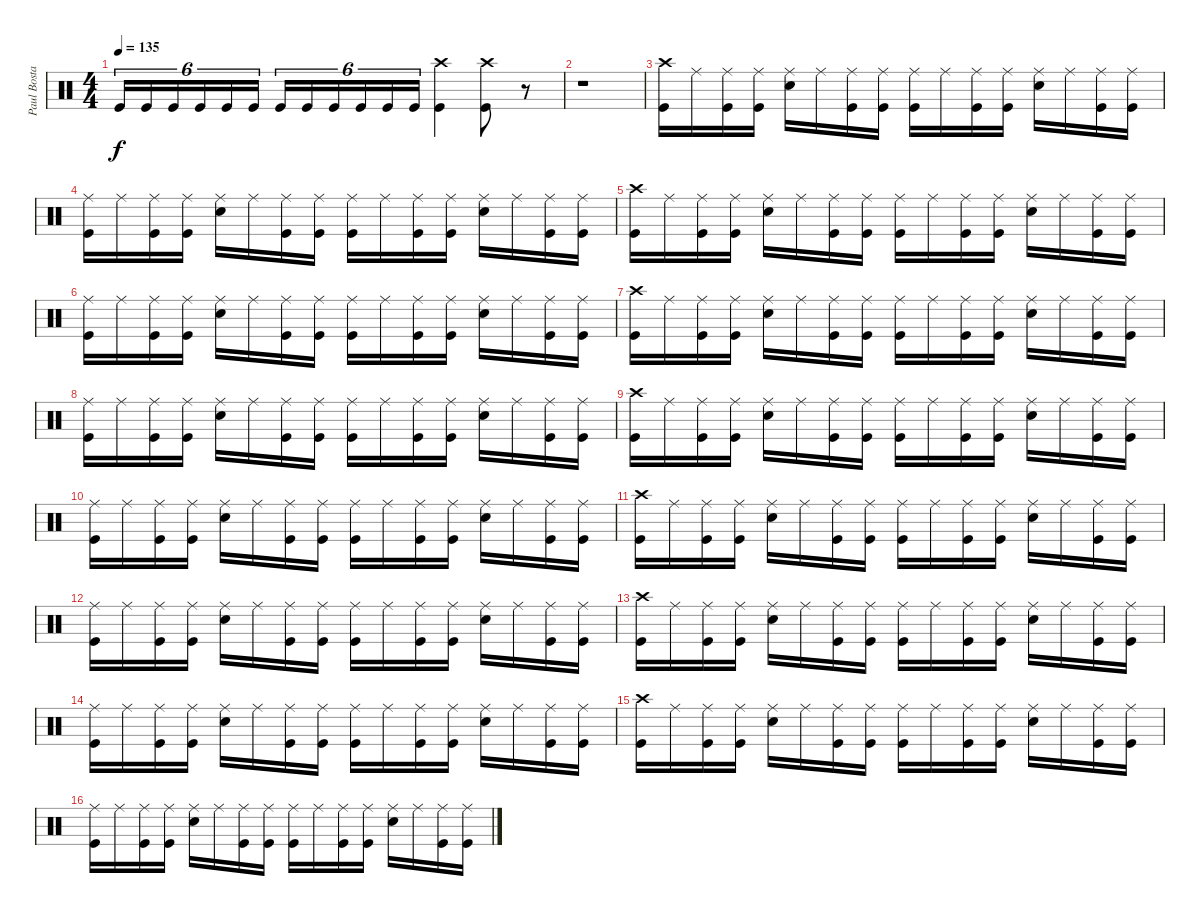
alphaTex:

\track ("Paul Bostaph" "Paul Bosta") {instrument percussion}
\staff {score}
\articulation defaults
\ts (4 4)
\tempo 135
\clef neutral
\ks c "Kick (hit)".16{tu (6 4) dy f} "Kick (hit)".16{tu (6 4)} "Kick (hit)".16{tu (6 4)} "Kick (hit)".16{tu (6 4)} "Kick (hit)".16{tu (6 4)} "Kick (hit)".16{tu (6 4)} "Kick (hit)".16{tu (6 4)} "Kick (hit)".16{tu (6 4)} "Kick (hit)".16{tu (6 4)} "Kick (hit)".16{tu (6 4)} "Kick (hit)".16{tu (6 4)} "Kick (hit)".16{tu (6 4)}
("Crash high (hit)" "Kick (hit)").4 ("Kick (hit)" "Crash high (hit)").8 r.8 |
r.1 |
("Kick (hit)" "Crash high (hit)").16 "Ride (middle)".16 ("Kick (hit)" "Ride (middle)").16 ("Kick (hit)" "Ride (middle)").16 ("Snare (hit) 2" "Ride (middle)").16 "Ride (middle)".16 ("Kick (hit)" "Ride (middle)").16 ("Kick (hit)" "Ride (middle)").16 ("Kick (hit)" "Ride (middle)").16 "Ride (middle)".16 ("Kick (hit)" "Ride (middle)").16 ("Kick (hit)" "Ride (middle)").16 ("Snare (hit) 2" "Ride (middle)").16 "Ride (middle)".16 ("Kick (hit)" "Ride (middle)").16 ("Kick (hit)" "Ride (middle)").16 |
("Kick (hit)" "Ride (middle)").16 "Ride (middle)".16 ("Kick (hit)" "Ride (middle)").16 ("Kick (hit)" "Ride (middle)").16 ("Snare (hit) 2" "Ride (middle)").16 "Ride (middle)".16 ("Kick (hit)" "Ride (middle)").16 ("Kick (hit)" "Ride (middle)").16 ("Kick (hit)" "Ride (middle)").16 "Ride (middle)".16 ("Kick (hit)" "Ride (middle)").16 ("Kick (hit)" "Ride (middle)").16 ("Snare (hit) 2" "Ride (middle)").16 "Ride (middle)".16 ("Kick (hit)" "Ride (middle)").16 ("Kick (hit)" "Ride (middle)").16 |
("Kick (hit)" "Crash high (hit)").16 "Ride (middle)".16 ("Kick (hit)" "Ride (middle)").16 ("Kick (hit)" "Ride (middle)").16 ("Snare (hit) 2" "Ride (middle)").16 "Ride (middle)".16 ("Kick (hit)" "Ride (middle)").16 ("Kick (hit)" "Ride (middle)").16 ("Kick (hit)" "Ride (middle)").16 "Ride (middle)".16 ("Kick (hit)" "Ride (middle)").16 ("Kick (hit)" "Ride (middle)").16 ("Snare (hit) 2" "Ride (middle)").16 "Ride (middle)".16 ("Kick (hit)" "Ride (middle)").16 ("Kick (hit)" "Ride (middle)").16 |
("Kick (hit)" "Ride (middle)").16 "Ride (middle)".16 ("Kick (hit)" "Ride (middle)").16 ("Kick (hit)" "Ride (middle)").16 ("Snare (hit) 2" "Ride (middle)").16 "Ride (middle)".16 ("Kick (hit)" "Ride (middle)").16 ("Kick (hit)" "Ride (middle)").16 ("Kick (hit)" "Ride (middle)").16 "Ride (middle)".16 ("Kick (hit)" "Ride (middle)").16 ("Kick (hit)" "Ride (middle)").16 ("Snare (hit) 2" "Ride (middle)").16 "Ride (middle)".16 ("Kick (hit)" "Ride (middle)").16 ("Kick (hit)" "Ride (middle)").16 |
("Kick (hit)" "Crash high (hit)").16 "Ride (middle)".16 ("Kick (hit)" "Ride (middle)").16 ("Kick (hit)" "Ride (middle)").16 ("Snare (hit) 2" "Ride (middle)").16 "Ride (middle)".16 ("Kick (hit)" "Ride (middle)").16 ("Kick (hit)" "Ride (middle)").16 ("Kick (hit)" "Ride (middle)").16 "Ride (middle)".16 ("Kick (hit)" "Ride (middle)").16 ("Kick (hit)" "Ride (middle)").16 ("Snare (hit) 2" "Ride (middle)").16 "Ride (middle)".16 ("Kick (hit)" "Ride (middle)").16 ("Kick (hit)" "Ride (middle)").16 |
("Kick (hit)" "Ride (middle)").16 "Ride (middle)".16 ("Kick (hit)" "Ride (middle)").16 ("Kick (hit)" "Ride (middle)").16 ("Snare (hit) 2" "Ride (middle)").16 "Ride (middle)".16 ("Kick (hit)" "Ride (middle)").16 ("Kick (hit)" "Ride (middle)").16 ("Kick (hit)" "Ride (middle)").16 "Ride (middle)".16 ("Kick (hit)" "Ride (middle)").16 ("Kick (hit)" "Ride (middle)").16 ("Snare (hit) 2" "Ride (middle)").16 "Ride (middle)".16 ("Kick (hit)" "Ride (middle)").16 ("Kick (hit)" "Ride (middle)").16 |
("Kick (hit)" "Crash high (hit)").16 "Ride (middle)".16 ("Kick (hit)" "Ride (middle)").16 ("Kick (hit)" "Ride (middle)").16 ("Snare (hit) 2" "Ride (middle)").16 "Ride (middle)".16 ("Kick (hit)" "Ride (middle)").16 ("Kick (hit)" "Ride (middle)").16 ("Kick (hit)" "Ride (middle)").16 "Ride (middle)".16 ("Kick (hit)" "Ride (middle)").16 ("Kick (hit)" "Ride (middle)").16 ("Snare (hit) 2" "Ride (middle)").16 "Ride (middle)".16 ("Kick (hit)" "Ride (middle)").16 ("Kick (hit)" "Ride (middle)").16 |
("Kick (hit)" "Ride (middle)").16 "Ride (middle)".16 ("Kick (hit)" "Ride (middle)").16 ("Kick (hit)" "Ride (middle)").16 ("Snare (hit) 2" "Ride (middle)").16 "Ride (middle)".16 ("Kick (hit)" "Ride (middle)").16 ("Kick (hit)" "Ride (middle)").16 ("Kick (hit)" "Ride (middle)").16 "Ride (middle)".16 ("Kick (hit)" "Ride (middle)").16 ("Kick (hit)" "Ride (middle)").16 ("Snare (hit) 2" "Ride (middle)").16 "Ride (middle)".16 ("Kick (hit)" "Ride (middle)").16 ("Kick (hit)" "Ride (middle)").16 |
("Kick (hit)" "Crash high (hit)").16 "Ride (middle)".16 ("Kick (hit)" "Ride (middle)").16 ("Kick (hit)" "Ride (middle)").16 ("Snare (hit) 2" "Ride (middle)").16 "Ride (middle)".16 ("Kick (hit)" "Ride (middle)").16 ("Kick (hit)" "Ride (middle)").16 ("Kick (hit)" "Ride (middle)").16 "Ride (middle)".16 ("Kick (hit)" "Ride (middle)").16 ("Kick (hit)" "Ride (middle)").16 ("Snare (hit) 2" "Ride (middle)").16 "Ride (middle)".16 ("Kick (hit)" "Ride (middle)").16 ("Kick (hit)" "Ride (middle)").16 |
("Kick (hit)" "Ride (middle)").16 "Ride (middle)".16 ("Kick (hit)" "Ride (middle)").16 ("Kick (hit)" "Ride (middle)").16 ("Snare (hit) 2" "Ride (middle)").16 "Ride (middle)".16 ("Kick (hit)" "Ride (middle)").16 ("Kick (hit)" "Ride (middle)").16 ("Kick (hit)" "Ride (middle)").16 "Ride (middle)".16 ("Kick (hit)" "Ride (middle)").16 ("Kick (hit)" "Ride (middle)").16 ("Snare (hit) 2" "Ride (middle)").16 "Ride (middle)".16 ("Kick (hit)" "Ride (middle)").16 ("Kick (hit)" "Ride (middle)").16 |
("Kick (hit)" "Crash high (hit)").16 "Ride (middle)".16 ("Kick (hit)" "Ride (middle)").16 ("Kick (hit)" "Ride (middle)").16 ("Snare (hit) 2" "Ride (middle)").16 "Ride (middle)".16 ("Kick (hit)" "Ride (middle)").16 ("Kick (hit)" "Ride (middle)").16 ("Kick (hit)" "Ride (middle)").16 "Ride (middle)".16 ("Kick (hit)" "Ride (middle)").16 ("Kick (hit)" "Ride (middle)").16 ("Snare (hit) 2" "Ride (middle)").16 "Ride (middle)".16 ("Kick (hit)" "Ride (middle)").16 ("Kick (hit)" "Ride (middle)").16 |
("Kick (hit)" "Ride (middle)").16 "Ride (middle)".16 ("Kick (hit)" "Ride (middle)").16 ("Kick (hit)" "Ride (middle)").16 ("Snare (hit) 2" "Ride (middle)").16 "Ride (middle)".16 ("Kick (hit)" "Ride (middle)").16 ("Kick (hit)" "Ride (middle)").16 ("Kick (hit)" "Ride (middle)").16 "Ride (middle)".16 ("Kick (hit)" "Ride (middle)").16 ("Kick (hit)" "Ride (middle)").16 ("Snare (hit) 2" "Ride (middle)").16 "Ride (middle)".16 ("Kick (hit)" "Ride (middle)").16 ("Kick (hit)" "Ride (middle)").16 |
("Kick (hit)" "Crash high (hit)").16 "Ride (middle)".16 ("Kick (hit)" "Ride (middle)").16 ("Kick (hit)" "Ride (middle)").16 ("Snare (hit) 2" "Ride (middle)").16 "Ride (middle)".16 ("Kick (hit)" "Ride (middle)").16 ("Kick (hit)" "Ride (middle)").16 ("Kick (hit)" "Ride (middle)").16 "Ride (middle)".16 ("Kick (hit)" "Ride (middle)").16 ("Kick (hit)" "Ride (middle)").16 ("Snare (hit) 2" "Ride (middle)").16 "Ride (middle)".16 ("Kick (hit)" "Ride (middle)").16 ("Kick (hit)" "Ride (middle)").16 |
("Kick (hit)" "Ride (middle)").16 "Ride (middle)".16 ("Kick (hit)" "Ride (middle)").16 ("Kick (hit)" "Ride (middle)").16 ("Snare (hit) 2" "Ride (middle)").16 "Ride (middle)".16 ("Kick (hit)" "Ride (middle)").16 ("Kick (hit)" "Ride (middle)").16 ("Kick (hit)" "Ride (middle)").16 "Ride (middle)".16 ("Kick (hit)" "Ride (middle)").16 ("Kick (hit)" "Ride (middle)").16 ("Snare (hit) 2" "Ride (middle)").16 "Ride (middle)".16 ("Kick (hit)" "Ride (middle)").16 ("Kick (hit)" "Ride (middle)").16
